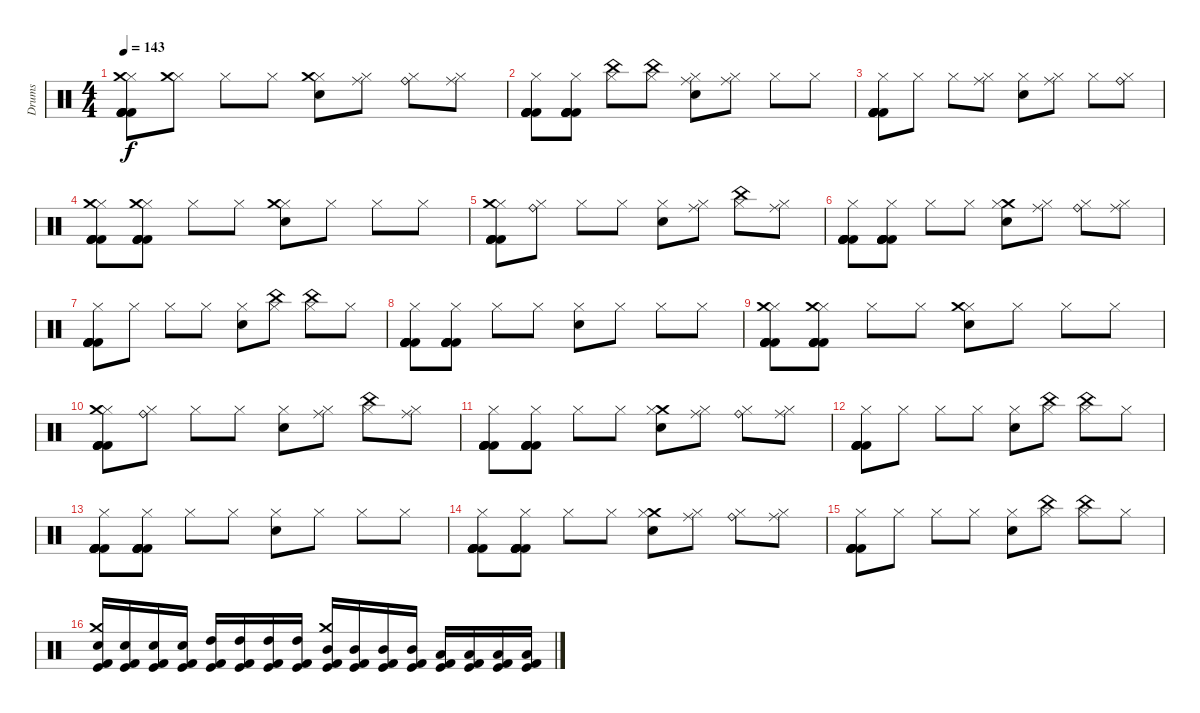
\track ("Drums" "Drums") {instrument percussion}
\staff {score}
\articulation defaults
\ts (4 4)
\tempo 143
\clef neutral
\ks c
("Kick (hit) 2" "Kick (hit) 2" "Kick (hit) 2" "Hi-Hat (closed)" "Kick (hit) 2" "Crash medium (hit)").8{dy f} ("Hi-Hat (closed)" "Crash medium (hit)").8 "Hi-Hat (closed)".8 "Hi-Hat (closed)".8 ("Electric Snare (hit)" "Hi-Hat (closed)" "Crash medium (hit)").8 ("Hi-Hat (closed)" "Ride (middle)").8 ("Hi-Hat (closed)" "Ride (bell)").8 ("Hi-Hat (closed)" "Ride (middle)").8 |
("Kick (hit) 2" "Kick (hit) 2" "Kick (hit) 2" "Hi-Hat (closed)" "Kick (hit) 2" "Kick (hit) 2").8 ("Kick (hit) 2" "Kick (hit) 2" "Kick (hit) 2" "Hi-Hat (closed)" "Kick (hit) 2" "Kick (hit) 2").8 ("Hi-Hat (closed)" "China (hit)").8 ("Hi-Hat (closed)" "China (hit)").8 ("Electric Snare (hit)" "Hi-Hat (closed)" "Ride (middle)").8 ("Hi-Hat (closed)" "Ride (middle)").8 "Hi-Hat (closed)".8 "Hi-Hat (closed)".8 |
("Kick (hit) 2" "Kick (hit) 2" "Kick (hit) 2" "Hi-Hat (closed)" "Kick (hit) 2" "Kick (hit) 2").8 "Hi-Hat (closed)".8 "Hi-Hat (closed)".8 ("Ride (middle)" "Hi-Hat (closed)").8 ("Electric Snare (hit)" "Hi-Hat (closed)").8 ("Ride (middle)" "Hi-Hat (closed)").8 "Hi-Hat (closed)".8 ("Ride (bell)" "Hi-Hat (closed)").8 |
("Kick (hit) 2" "Kick (hit) 2" "Kick (hit) 2" "Hi-Hat (closed)" "Kick (hit) 2" "Crash medium (hit)").8 ("Kick (hit) 2" "Kick (hit) 2" "Kick (hit) 2" "Hi-Hat (closed)" "Kick (hit) 2" "Crash medium (hit)").8 "Hi-Hat (closed)".8 "Hi-Hat (closed)".8 ("Electric Snare (hit)" "Hi-Hat (closed)" "Crash medium (hit)").8 "Hi-Hat (closed)".8 "Hi-Hat (closed)".8 "Hi-Hat (closed)".8 |
("Kick (hit) 2" "Kick (hit) 2" "Kick (hit) 2" "Hi-Hat (closed)" "Kick (hit) 2" "Crash medium (hit)").8 ("Hi-Hat (closed)" "Ride (bell)").8 "Hi-Hat (closed)".8 "Hi-Hat (closed)".8 ("Electric Snare (hit)" "Hi-Hat (closed)").8 ("Hi-Hat (closed)" "Ride (middle)").8 ("Hi-Hat (closed)" "China (hit)").8 ("Hi-Hat (closed)" "Ride (middle)").8 |
("Kick (hit) 2" "Kick (hit) 2" "Kick (hit) 2" "Hi-Hat (closed)" "Kick (hit) 2" "Kick (hit) 2").8 ("Kick (hit) 2" "Kick (hit) 2" "Kick (hit) 2" "Hi-Hat (closed)" "Kick (hit) 2" "Kick (hit) 2").8 "Hi-Hat (closed)".8 "Hi-Hat (closed)".8 ("Crash medium (hit)" "Electric Snare (hit)" "Hi-Hat (closed)").8 ("Ride (middle)" "Hi-Hat (closed)").8 ("Ride (bell)" "Hi-Hat (closed)").8 ("Ride (middle)" "Hi-Hat (closed)").8 |
("Kick (hit) 2" "Kick (hit) 2" "Kick (hit) 2" "Hi-Hat (closed)" "Kick (hit) 2" "Kick (hit) 2").8 "Hi-Hat (closed)".8 "Hi-Hat (closed)".8 "Hi-Hat (closed)".8 ("Electric Snare (hit)" "Hi-Hat (closed)").8 ("China (hit)" "Hi-Hat (closed)").8 ("China (hit)" "Hi-Hat (closed)").8 "Hi-Hat (closed)".8 |
("Kick (hit) 2" "Kick (hit) 2" "Kick (hit) 2" "Hi-Hat (closed)" "Kick (hit) 2" "Kick (hit) 2").8 ("Kick (hit) 2" "Kick (hit) 2" "Kick (hit) 2" "Hi-Hat (closed)" "Kick (hit) 2" "Kick (hit) 2").8 "Hi-Hat (closed)".8 "Hi-Hat (closed)".8 ("Electric Snare (hit)" "Hi-Hat (closed)").8 "Hi-Hat (closed)".8 "Hi-Hat (closed)".8 "Hi-Hat (closed)".8 |
("Kick (hit) 2" "Kick (hit) 2" "Kick (hit) 2" "Hi-Hat (closed)" "Kick (hit) 2" "Crash medium (hit)").8 ("Kick (hit) 2" "Kick (hit) 2" "Kick (hit) 2" "Hi-Hat (closed)" "Kick (hit) 2" "Crash medium (hit)").8 "Hi-Hat (closed)".8 "Hi-Hat (closed)".8 ("Electric Snare (hit)" "Hi-Hat (closed)" "Crash medium (hit)").8 "Hi-Hat (closed)".8 "Hi-Hat (closed)".8 "Hi-Hat (closed)".8 |
("Kick (hit) 2" "Kick (hit) 2" "Kick (hit) 2" "Hi-Hat (closed)" "Kick (hit) 2" "Crash medium (hit)").8 ("Hi-Hat (closed)" "Ride (bell)").8 "Hi-Hat (closed)".8 "Hi-Hat (closed)".8 ("Electric Snare (hit)" "Hi-Hat (closed)").8 ("Hi-Hat (closed)" "Ride (middle)").8 ("Hi-Hat (closed)" "China (hit)").8 ("Hi-Hat (closed)" "Ride (middle)").8 |
("Kick (hit) 2" "Kick (hit) 2" "Kick (hit) 2" "Hi-Hat (closed)" "Kick (hit) 2" "Kick (hit) 2").8 ("Kick (hit) 2" "Kick (hit) 2" "Kick (hit) 2" "Hi-Hat (closed)" "Kick (hit) 2" "Kick (hit) 2").8 "Hi-Hat (closed)".8 "Hi-Hat (closed)".8 ("Crash medium (hit)" "Electric Snare (hit)" "Hi-Hat (closed)").8 ("Ride (middle)" "Hi-Hat (closed)").8 ("Ride (bell)" "Hi-Hat (closed)").8 ("Ride (middle)" "Hi-Hat (closed)").8 |
("Kick (hit) 2" "Kick (hit) 2" "Kick (hit) 2" "Hi-Hat (closed)" "Kick (hit) 2" "Kick (hit) 2").8 "Hi-Hat (closed)".8 "Hi-Hat (closed)".8 "Hi-Hat (closed)".8 ("Electric Snare (hit)" "Hi-Hat (closed)").8 ("China (hit)" "Hi-Hat (closed)").8 ("China (hit)" "Hi-Hat (closed)").8 "Hi-Hat (closed)".8 |
("Kick (hit) 2" "Kick (hit) 2" "Kick (hit) 2" "Hi-Hat (closed)" "Kick (hit) 2" "Kick (hit) 2").8 ("Kick (hit) 2" "Kick (hit) 2" "Kick (hit) 2" "Hi-Hat (closed)" "Kick (hit) 2" "Kick (hit) 2").8 "Hi-Hat (closed)".8 "Hi-Hat (closed)".8 ("Electric Snare (hit)" "Hi-Hat (closed)").8 "Hi-Hat (closed)".8 "Hi-Hat (closed)".8 "Hi-Hat (closed)".8 |
("Kick (hit) 2" "Kick (hit) 2" "Kick (hit) 2" "Hi-Hat (closed)" "Kick (hit) 2" "Kick (hit) 2").8 ("Kick (hit) 2" "Kick (hit) 2" "Kick (hit) 2" "Hi-Hat (closed)" "Kick (hit) 2" "Kick (hit) 2").8 "Hi-Hat (closed)".8 "Hi-Hat (closed)".8 ("Crash medium (hit)" "Electric Snare (hit)" "Hi-Hat (closed)").8 ("Ride (middle)" "Hi-Hat (closed)").8 ("Ride (bell)" "Hi-Hat (closed)").8 ("Ride (middle)" "Hi-Hat (closed)").8 |
("Kick (hit) 2" "Kick (hit) 2" "Kick (hit) 2" "Hi-Hat (closed)" "Kick (hit) 2" "Kick (hit) 2").8 "Hi-Hat (closed)".8 "Hi-Hat (closed)".8 "Hi-Hat (closed)".8 ("Electric Snare (hit)" "Hi-Hat (closed)").8 ("China (hit)" "Hi-Hat (closed)").8 ("China (hit)" "Hi-Hat (closed)").8 "Hi-Hat (closed)".8 |
("Crash medium (hit)" "Electric Snare (hit)" "Kick (hit) 2" "Kick (hit)").16 ("Electric Snare (hit)" "Kick (hit) 2" "Kick (hit)").16 ("Electric Snare (hit)" "Kick (hit) 2" "Kick (hit)").16 ("Electric Snare (hit)" "Kick (hit) 2" "Kick (hit)").16 ("High Tom (hit)" "Kick (hit) 2" "Kick (hit)").16 ("High Tom (hit)" "Kick (hit) 2" "Kick (hit)").16 ("High Tom (hit)" "Kick (hit) 2" "Kick (hit)").16 ("High Tom (hit)" "Kick (hit) 2" "Kick (hit)").16 ("Crash medium (hit)" "Mid Tom (hit)" "Kick (hit) 2" "Kick (hit)").16 ("Mid Tom (hit)" "Kick (hit) 2" "Kick (hit)").16 ("Mid Tom (hit)" "Kick (hit) 2" "Kick (hit)").16 ("Mid Tom (hit)" "Kick (hit) 2" "Kick (hit)").16 ("Low Tom (hit)" "Kick (hit) 2" "Kick (hit)").16 ("Low Tom (hit)" "Kick (hit) 2" "Kick (hit)").16 ("Low Tom (hit)" "Kick (hit) 2" "Kick (hit)").16 ("Low Tom (hit)" "Kick (hit) 2" "Kick (hit)").16
